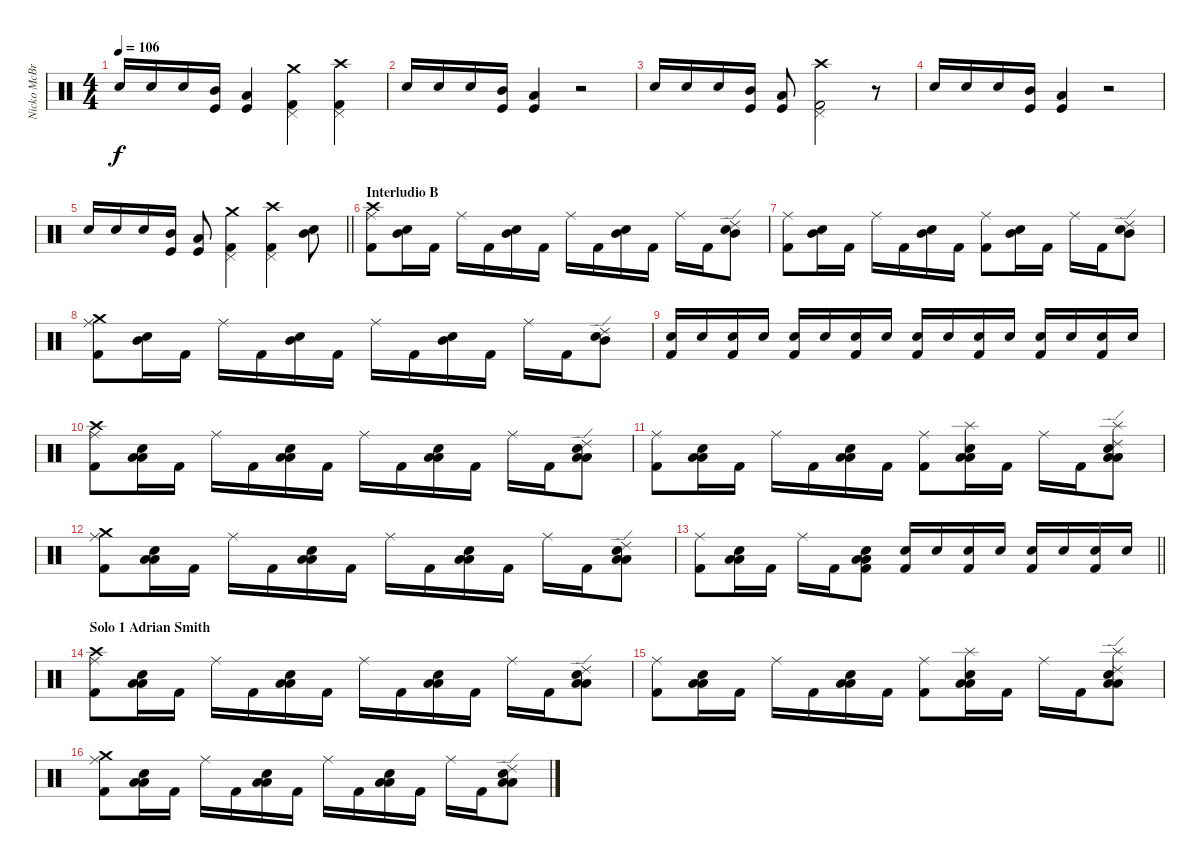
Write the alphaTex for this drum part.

\track ("Nicko McBrain" "Nicko McBr") {instrument percussion}
\staff {score}
\articulation defaults
\ts (4 4)
\tempo 106
\clef neutral
\ks c "Snare (hit) 2".16{dy f} "Snare (hit) 2".16 "Snare (hit) 2".16
("Mid Tom (hit)" "Kick (hit)").16 ("Low Tom (hit)" "Kick (hit)").4 ("Kick (hit) 2" "Pedal Hi-Hat (hit)" "Crash medium (hit)").4 ("Kick (hit) 2" "Pedal Hi-Hat (hit)" "Crash high (hit)").4 |
"Snare (hit) 2".16 "Snare (hit) 2".16 "Snare (hit) 2".16 ("Mid Tom (hit)" "Kick (hit)").16 ("Low Tom (hit)" "Kick (hit)").4 r.2 |
"Snare (hit) 2".16 "Snare (hit) 2".16 "Snare (hit) 2".16 ("Mid Tom (hit)" "Kick (hit)").16 ("Low Tom (hit)" "Kick (hit)").8 ("Kick (hit) 2" "Pedal Hi-Hat (hit)" "Crash high (hit)").2 r.8 |
"Snare (hit) 2".16 "Snare (hit) 2".16 "Snare (hit) 2".16 ("Mid Tom (hit)" "Kick (hit)").16 ("Low Tom (hit)" "Kick (hit)").4 r.2 |
\barLineRight lightlight "Snare (hit) 2".16 "Snare (hit) 2".16 "Snare (hit) 2".16
("Mid Tom (hit)" "Kick (hit)").16 ("Low Tom (hit)" "Kick (hit)").8 ("Kick (hit) 2" "Pedal Hi-Hat (hit)" "Crash medium (hit)").4 ("Kick (hit) 2" "Pedal Hi-Hat (hit)" "Crash high (hit)").4 ("Electric Snare (hit)" "Mid Tom (hit)").8 |
\section ("" "Interludio B")
("Ride (middle)" "Crash high (hit)" "Kick (hit) 2").8 ("Electric Snare (hit)" "Mid Tom (hit)").16 "Kick (hit) 2".16 "Ride (middle)".16 "Kick (hit) 2".16 ("Electric Snare (hit)" "Mid Tom (hit)").16 "Kick (hit) 2".16 "Ride (middle)".16 "Kick (hit) 2".16 ("Electric Snare (hit)" "Mid Tom (hit)").16 "Kick (hit) 2".16 "Ride (middle)".16 "Kick (hit) 2".16 ("Ride (edge) 2" "Electric Snare (hit)" "Mid Tom (hit)").8 |
("Ride (middle)" "Kick (hit) 2").8 ("Electric Snare (hit)" "Mid Tom (hit)").16 "Kick (hit) 2".16 "Ride (middle)".16 "Kick (hit) 2".16 ("Electric Snare (hit)" "Mid Tom (hit)").16 "Kick (hit) 2".16 ("Ride (middle)" "Kick (hit) 2").8 ("Electric Snare (hit)" "Mid Tom (hit)").16 "Kick (hit) 2".16 "Ride (middle)".16 "Kick (hit) 2".16 ("Ride (edge) 2" "Electric Snare (hit)" "Mid Tom (hit)").8 |
("Ride (middle)" "Crash medium (hit)" "Kick (hit) 2").8 ("Electric Snare (hit)" "Mid Tom (hit)").16 "Kick (hit) 2".16 "Ride (middle)".16 "Kick (hit) 2".16 ("Electric Snare (hit)" "Mid Tom (hit)").16 "Kick (hit) 2".16 "Ride (middle)".16 "Kick (hit) 2".16 ("Electric Snare (hit)" "Mid Tom (hit)").16 "Kick (hit) 2".16 "Ride (middle)".16 "Kick (hit) 2".16 ("Ride (edge) 2" "Electric Snare (hit)" "Mid Tom (hit)").8 |
("Electric Snare (hit)" "Kick (hit) 2").16 "Electric Snare (hit)".16 ("Electric Snare (hit)" "Kick (hit) 2").16 "Electric Snare (hit)".16 ("Electric Snare (hit)" "Kick (hit) 2").16 "Electric Snare (hit)".16 ("Electric Snare (hit)" "Kick (hit) 2").16 "Electric Snare (hit)".16 ("Electric Snare (hit)" "Kick (hit) 2").16 "Electric Snare (hit)".16 ("Electric Snare (hit)" "Kick (hit) 2").16 "Electric Snare (hit)".16 ("Electric Snare (hit)" "Kick (hit) 2").16 "Electric Snare (hit)".16 ("Electric Snare (hit)" "Kick (hit) 2").16 "Electric Snare (hit)".16 |
("Ride (middle)" "Crash high (hit)" "Kick (hit) 2").8 ("Electric Snare (hit)" "Low Tom (hit)" "Low Floor Tom (hit)").16 "Kick (hit) 2".16 "Ride (middle)".16 "Kick (hit) 2".16 ("Electric Snare (hit)" "Low Tom (hit)" "Low Floor Tom (hit)").16 "Kick (hit) 2".16 "Ride (middle)".16 "Kick (hit) 2".16 ("Electric Snare (hit)" "Low Tom (hit)" "Low Floor Tom (hit)").16 "Kick (hit) 2".16 "Ride (middle)".16 "Kick (hit) 2".16 ("Ride (edge) 2" "Electric Snare (hit)" "Low Tom (hit)" "Low Floor Tom (hit)").8 |
("Ride (middle)" "Kick (hit) 2").8 ("Electric Snare (hit)" "Low Tom (hit)" "Low Floor Tom (hit)").16 "Kick (hit) 2".16 "Ride (middle)".16 "Kick (hit) 2".16 ("Electric Snare (hit)" "Low Tom (hit)" "Low Floor Tom (hit)").16 "Kick (hit) 2".16 ("Ride (middle)" "Kick (hit) 2").8 ("Electric Snare (hit)" "Low Tom (hit)" "Low Floor Tom (hit)" "Splash (hit)").16 "Kick (hit) 2".16 "Ride (middle)".16 "Kick (hit) 2".16 ("Ride (edge) 2" "Electric Snare (hit)" "Low Tom (hit)" "Low Floor Tom (hit)" "Splash (hit)").8 |
("Ride (middle)" "Crash medium (hit)" "Kick (hit) 2").8 ("Electric Snare (hit)" "Low Tom (hit)" "Low Floor Tom (hit)").16 "Kick (hit) 2".16 "Ride (middle)".16 "Kick (hit) 2".16 ("Electric Snare (hit)" "Low Tom (hit)" "Low Floor Tom (hit)").16 "Kick (hit) 2".16 "Ride (middle)".16 "Kick (hit) 2".16 ("Electric Snare (hit)" "Low Tom (hit)" "Low Floor Tom (hit)").16 "Kick (hit) 2".16 "Ride (middle)".16 "Kick (hit) 2".16 ("Ride (edge) 2" "Electric Snare (hit)" "Low Tom (hit)" "Low Floor Tom (hit)").8 |
\barLineRight lightlight
("Ride (middle)" "Kick (hit) 2").8 ("Electric Snare (hit)" "Low Tom (hit)" "Low Floor Tom (hit)").16 "Kick (hit) 2".16 "Ride (middle)".16 "Kick (hit) 2".16 ("Electric Snare (hit)" "Low Tom (hit)" "Low Floor Tom (hit)" "Kick (hit) 2").8 ("Electric Snare (hit)" "Kick (hit) 2").16 "Electric Snare (hit)".16 ("Electric Snare (hit)" "Kick (hit) 2").16 "Electric Snare (hit)".16 ("Electric Snare (hit)" "Kick (hit) 2").16 "Electric Snare (hit)".16 ("Electric Snare (hit)" "Kick (hit) 2").16 "Electric Snare (hit)".16 |
\section ("" "Solo 1 Adrian Smith")
("Ride (middle)" "Crash high (hit)" "Kick (hit) 2").8 ("Electric Snare (hit)" "Low Tom (hit)" "Low Floor Tom (hit)").16 "Kick (hit) 2".16 "Ride (middle)".16 "Kick (hit) 2".16 ("Electric Snare (hit)" "Low Tom (hit)" "Low Floor Tom (hit)").16 "Kick (hit) 2".16 "Ride (middle)".16 "Kick (hit) 2".16 ("Electric Snare (hit)" "Low Tom (hit)" "Low Floor Tom (hit)").16 "Kick (hit) 2".16 "Ride (middle)".16 "Kick (hit) 2".16 ("Ride (edge) 2" "Electric Snare (hit)" "Low Tom (hit)" "Low Floor Tom (hit)").8 |
("Ride (middle)" "Kick (hit) 2").8 ("Electric Snare (hit)" "Low Tom (hit)" "Low Floor Tom (hit)").16 "Kick (hit) 2".16 "Ride (middle)".16 "Kick (hit) 2".16 ("Electric Snare (hit)" "Low Tom (hit)" "Low Floor Tom (hit)").16 "Kick (hit) 2".16 ("Ride (middle)" "Kick (hit) 2").8 ("Electric Snare (hit)" "Low Tom (hit)" "Low Floor Tom (hit)" "Splash (hit)").16 "Kick (hit) 2".16 "Ride (middle)".16 "Kick (hit) 2".16 ("Ride (edge) 2" "Electric Snare (hit)" "Low Tom (hit)" "Low Floor Tom (hit)" "Splash (hit)").8 |
("Ride (middle)" "Crash medium (hit)" "Kick (hit) 2").8 ("Electric Snare (hit)" "Low Tom (hit)" "Low Floor Tom (hit)").16 "Kick (hit) 2".16 "Ride (middle)".16 "Kick (hit) 2".16 ("Electric Snare (hit)" "Low Tom (hit)" "Low Floor Tom (hit)").16 "Kick (hit) 2".16 "Ride (middle)".16 "Kick (hit) 2".16 ("Electric Snare (hit)" "Low Tom (hit)" "Low Floor Tom (hit)").16 "Kick (hit) 2".16 "Ride (middle)".16 "Kick (hit) 2".16 ("Ride (edge) 2" "Electric Snare (hit)" "Low Tom (hit)" "Low Floor Tom (hit)").8
